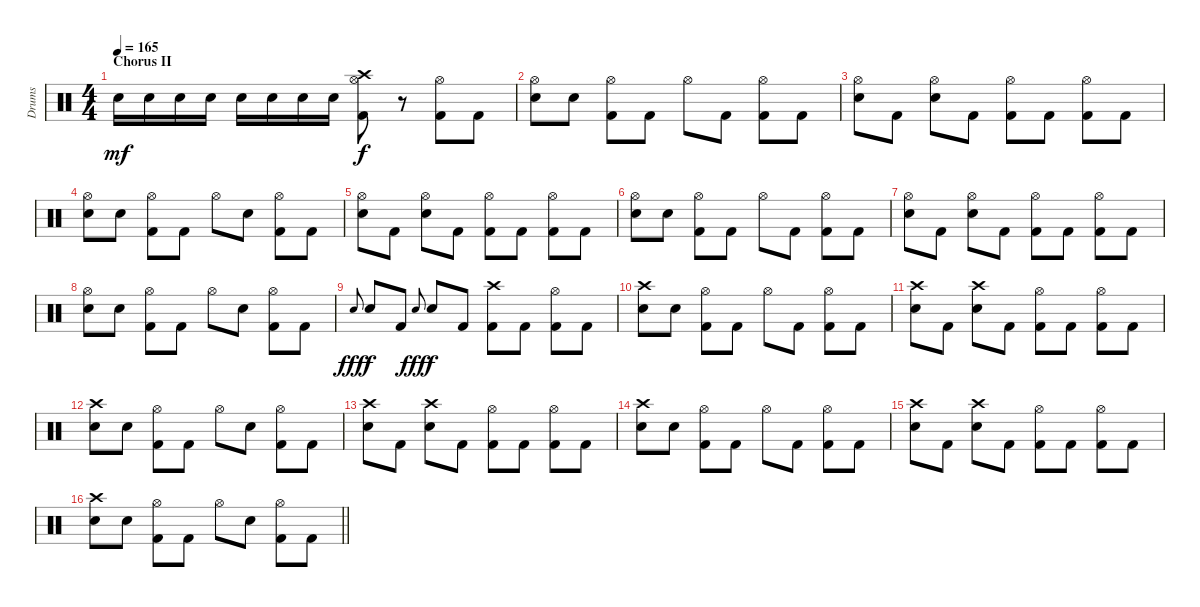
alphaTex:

\track ("Drums" "Drums") {instrument percussion}
\staff {score}
\articulation defaults
\ts (4 4)
\section ("" "Chorus II")
\tempo 165
\clef neutral
\ks c "Electric Snare (hit)".16{dy mf} "Electric Snare (hit)".16 "Electric Snare (hit)".16 "Electric Snare (hit)".16 "Electric Snare (hit)".16 "Electric Snare (hit)".16 "Electric Snare (hit)".16 "Electric Snare (hit)".16
("Crash high (hit)" "Hi-Hat (open)" "Kick (hit) 2").8{dy f} r.8 ("Hi-Hat (open)" "Kick (hit) 2").8 "Kick (hit) 2".8 |
("Hi-Hat (open)" "Electric Snare (hit)").8 "Electric Snare (hit)".8 ("Hi-Hat (open)" "Kick (hit) 2").8 "Kick (hit) 2".8 "Hi-Hat (open)".8 "Kick (hit) 2".8 ("Hi-Hat (open)" "Kick (hit) 2").8 "Kick (hit) 2".8 |
("Hi-Hat (open)" "Electric Snare (hit)").8 "Kick (hit) 2".8 ("Hi-Hat (open)" "Electric Snare (hit)").8 "Kick (hit) 2".8 ("Hi-Hat (open)" "Kick (hit) 2").8 "Kick (hit) 2".8 ("Hi-Hat (open)" "Kick (hit) 2").8 "Kick (hit) 2".8 |
("Hi-Hat (open)" "Electric Snare (hit)").8 "Electric Snare (hit)".8 ("Hi-Hat (open)" "Kick (hit) 2").8 "Kick (hit) 2".8 "Hi-Hat (open)".8 "Electric Snare (hit)".8 ("Hi-Hat (open)" "Kick (hit) 2").8 "Kick (hit) 2".8 |
("Hi-Hat (open)" "Electric Snare (hit)").8 "Kick (hit) 2".8 ("Hi-Hat (open)" "Electric Snare (hit)").8 "Kick (hit) 2".8 ("Hi-Hat (open)" "Kick (hit) 2").8 "Kick (hit) 2".8 ("Hi-Hat (open)" "Kick (hit) 2").8 "Kick (hit) 2".8 |
("Hi-Hat (open)" "Electric Snare (hit)").8 "Electric Snare (hit)".8 ("Hi-Hat (open)" "Kick (hit) 2").8 "Kick (hit) 2".8 "Hi-Hat (open)".8 "Kick (hit) 2".8 ("Hi-Hat (open)" "Kick (hit) 2").8 "Kick (hit) 2".8 |
("Hi-Hat (open)" "Electric Snare (hit)").8 "Kick (hit) 2".8 ("Hi-Hat (open)" "Electric Snare (hit)").8 "Kick (hit) 2".8 ("Hi-Hat (open)" "Kick (hit) 2").8 "Kick (hit) 2".8 ("Hi-Hat (open)" "Kick (hit) 2").8 "Kick (hit) 2".8 |
("Hi-Hat (open)" "Electric Snare (hit)").8 "Electric Snare (hit)".8 ("Hi-Hat (open)" "Kick (hit) 2").8 "Kick (hit) 2".8 "Hi-Hat (open)".8 "Electric Snare (hit)".8 ("Hi-Hat (open)" "Kick (hit) 2").8 "Kick (hit) 2".8 |
"Electric Snare (hit)".8{gr onbeat dy fff} "Electric Snare (hit)".8{dy f} "Kick (hit) 2".8 "Electric Snare (hit)".8{gr onbeat dy fff} "Electric Snare (hit)".8{dy f} "Kick (hit) 2".8 ("Crash high (hit)" "Kick (hit) 2").8 "Kick (hit) 2".8 ("Hi-Hat (open)" "Kick (hit) 2").8 "Kick (hit) 2".8 |
("Crash high (hit)" "Electric Snare (hit)").8 "Electric Snare (hit)".8 ("Hi-Hat (open)" "Kick (hit) 2").8 "Kick (hit) 2".8 "Hi-Hat (open)".8 "Kick (hit) 2".8 ("Hi-Hat (open)" "Kick (hit) 2").8 "Kick (hit) 2".8 |
("Crash high (hit)" "Electric Snare (hit)").8 "Kick (hit) 2".8 ("Crash high (hit)" "Electric Snare (hit)").8 "Kick (hit) 2".8 ("Hi-Hat (open)" "Kick (hit) 2").8 "Kick (hit) 2".8 ("Hi-Hat (open)" "Kick (hit) 2").8 "Kick (hit) 2".8 |
("Crash high (hit)" "Electric Snare (hit)").8 "Electric Snare (hit)".8 ("Hi-Hat (open)" "Kick (hit) 2").8 "Kick (hit) 2".8 "Hi-Hat (open)".8 "Electric Snare (hit)".8 ("Hi-Hat (open)" "Kick (hit) 2").8 "Kick (hit) 2".8 |
("Crash high (hit)" "Electric Snare (hit)").8 "Kick (hit) 2".8 ("Crash high (hit)" "Electric Snare (hit)").8 "Kick (hit) 2".8 ("Hi-Hat (open)" "Kick (hit) 2").8 "Kick (hit) 2".8 ("Hi-Hat (open)" "Kick (hit) 2").8 "Kick (hit) 2".8 |
("Crash high (hit)" "Electric Snare (hit)").8 "Electric Snare (hit)".8 ("Hi-Hat (open)" "Kick (hit) 2").8 "Kick (hit) 2".8 "Hi-Hat (open)".8 "Kick (hit) 2".8 ("Hi-Hat (open)" "Kick (hit) 2").8 "Kick (hit) 2".8 |
("Crash high (hit)" "Electric Snare (hit)").8 "Kick (hit) 2".8 ("Crash high (hit)" "Electric Snare (hit)").8 "Kick (hit) 2".8 ("Hi-Hat (open)" "Kick (hit) 2").8 "Kick (hit) 2".8 ("Hi-Hat (open)" "Kick (hit) 2").8 "Kick (hit) 2".8 |
\barLineRight lightlight
("Crash high (hit)" "Electric Snare (hit)").8 "Electric Snare (hit)".8 ("Hi-Hat (open)" "Kick (hit) 2").8 "Kick (hit) 2".8 "Hi-Hat (open)".8 "Electric Snare (hit)".8 ("Hi-Hat (open)" "Kick (hit) 2").8 "Kick (hit) 2".8
